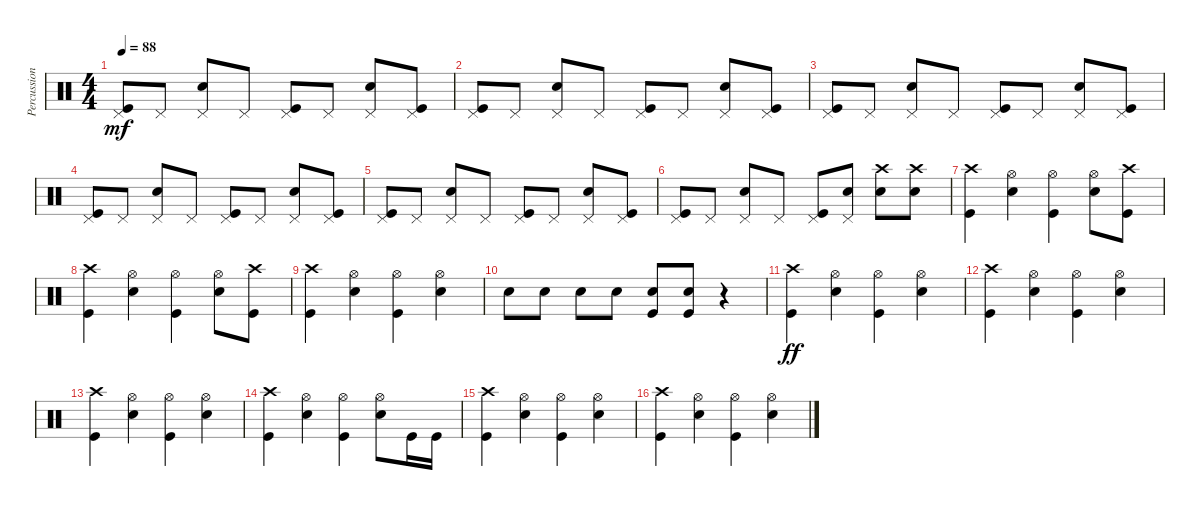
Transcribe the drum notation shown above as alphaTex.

\track ("Percussion" "Percussion") {instrument percussion}
\staff {score}
\articulation defaults
\ts (4 4)
\tempo 88
\clef neutral
\ks c
("Kick (hit)" "Pedal Hi-Hat (hit)").8{dy mf} "Pedal Hi-Hat (hit)".8 ("Snare (hit) 2" "Pedal Hi-Hat (hit)").8 "Pedal Hi-Hat (hit)".8 ("Kick (hit)" "Pedal Hi-Hat (hit)").8 "Pedal Hi-Hat (hit)".8 ("Snare (hit) 2" "Pedal Hi-Hat (hit)").8 ("Kick (hit)" "Pedal Hi-Hat (hit)").8 |
("Kick (hit)" "Pedal Hi-Hat (hit)").8 "Pedal Hi-Hat (hit)".8 ("Snare (hit) 2" "Pedal Hi-Hat (hit)").8 "Pedal Hi-Hat (hit)".8 ("Kick (hit)" "Pedal Hi-Hat (hit)").8 "Pedal Hi-Hat (hit)".8 ("Snare (hit) 2" "Pedal Hi-Hat (hit)").8 ("Kick (hit)" "Pedal Hi-Hat (hit)").8 |
("Kick (hit)" "Pedal Hi-Hat (hit)").8 "Pedal Hi-Hat (hit)".8 ("Snare (hit) 2" "Pedal Hi-Hat (hit)").8 "Pedal Hi-Hat (hit)".8 ("Kick (hit)" "Pedal Hi-Hat (hit)").8 "Pedal Hi-Hat (hit)".8 ("Snare (hit) 2" "Pedal Hi-Hat (hit)").8 ("Kick (hit)" "Pedal Hi-Hat (hit)").8 |
("Kick (hit)" "Pedal Hi-Hat (hit)").8 "Pedal Hi-Hat (hit)".8 ("Snare (hit) 2" "Pedal Hi-Hat (hit)").8 "Pedal Hi-Hat (hit)".8 ("Kick (hit)" "Pedal Hi-Hat (hit)").8 "Pedal Hi-Hat (hit)".8 ("Snare (hit) 2" "Pedal Hi-Hat (hit)").8 ("Kick (hit)" "Pedal Hi-Hat (hit)").8 |
("Kick (hit)" "Pedal Hi-Hat (hit)").8 "Pedal Hi-Hat (hit)".8 ("Snare (hit) 2" "Pedal Hi-Hat (hit)").8 "Pedal Hi-Hat (hit)".8 ("Kick (hit)" "Pedal Hi-Hat (hit)").8 "Pedal Hi-Hat (hit)".8 ("Snare (hit) 2" "Pedal Hi-Hat (hit)").8 ("Kick (hit)" "Pedal Hi-Hat (hit)").8 |
("Kick (hit)" "Pedal Hi-Hat (hit)").8 "Pedal Hi-Hat (hit)".8 ("Snare (hit) 2" "Pedal Hi-Hat (hit)").8 "Pedal Hi-Hat (hit)".8 ("Kick (hit)" "Pedal Hi-Hat (hit)").8 ("Snare (hit) 2" "Pedal Hi-Hat (hit)").8 ("Snare (hit) 2" "Crash high (hit)").8 ("Snare (hit) 2" "Crash high (hit)").8 |
("Kick (hit)" "Crash high (hit)").4 ("Snare (hit) 2" "Hi-Hat (open)").4 ("Kick (hit)" "Hi-Hat (open)").4 ("Snare (hit) 2" "Hi-Hat (open)").8 ("Kick (hit)" "Crash high (hit)").8 |
("Kick (hit)" "Crash high (hit)").4 ("Snare (hit) 2" "Hi-Hat (open)").4 ("Kick (hit)" "Hi-Hat (open)").4 ("Snare (hit) 2" "Hi-Hat (open)").8 ("Kick (hit)" "Crash high (hit)").8 |
("Kick (hit)" "Crash high (hit)").4 ("Snare (hit) 2" "Hi-Hat (open)").4 ("Kick (hit)" "Hi-Hat (open)").4 ("Snare (hit) 2" "Hi-Hat (open)").4 |
"Snare (hit) 2".8 "Snare (hit) 2".8 "Snare (hit) 2".8 "Snare (hit) 2".8 ("Snare (hit) 2" "Kick (hit)").8 ("Snare (hit) 2" "Kick (hit)").8 r.4 |
("Kick (hit)" "Crash high (hit)").4{dy ff} ("Snare (hit) 2" "Hi-Hat (open)").4 ("Kick (hit)" "Hi-Hat (open)").4 ("Snare (hit) 2" "Hi-Hat (open)").4 |
("Kick (hit)" "Crash high (hit)").4 ("Snare (hit) 2" "Hi-Hat (open)").4 ("Kick (hit)" "Hi-Hat (open)").4 ("Snare (hit) 2" "Hi-Hat (open)").4 |
("Kick (hit)" "Crash high (hit)").4 ("Snare (hit) 2" "Hi-Hat (open)").4 ("Kick (hit)" "Hi-Hat (open)").4 ("Snare (hit) 2" "Hi-Hat (open)").4 |
("Kick (hit)" "Crash high (hit)").4 ("Snare (hit) 2" "Hi-Hat (open)").4 ("Kick (hit)" "Hi-Hat (open)").4 ("Snare (hit) 2" "Hi-Hat (open)").8 "Kick (hit)".16 "Kick (hit)".16 |
("Kick (hit)" "Crash high (hit)").4 ("Snare (hit) 2" "Hi-Hat (open)").4 ("Kick (hit)" "Hi-Hat (open)").4 ("Snare (hit) 2" "Hi-Hat (open)").4 |
("Kick (hit)" "Crash high (hit)").4 ("Snare (hit) 2" "Hi-Hat (open)").4 ("Kick (hit)" "Hi-Hat (open)").4 ("Snare (hit) 2" "Hi-Hat (open)").4
